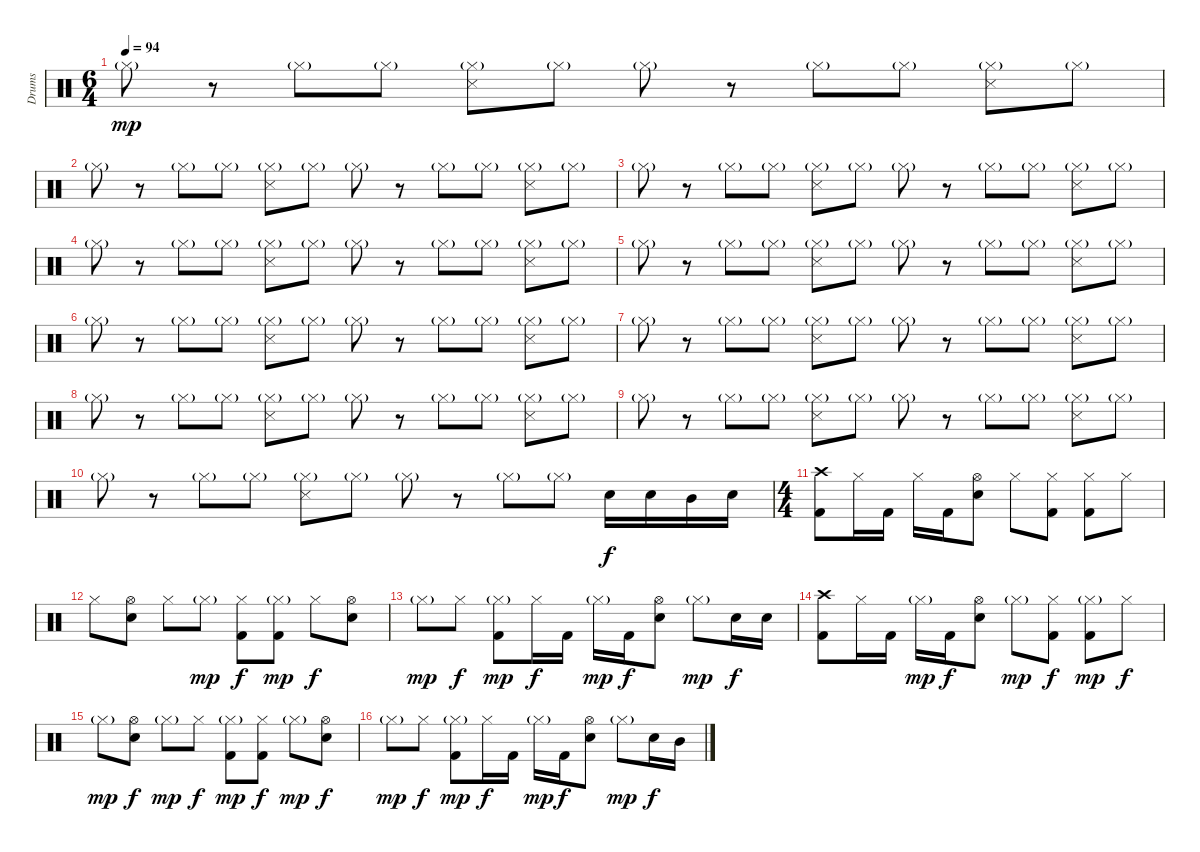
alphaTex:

\track ("Drums" "Drums") {instrument percussion}
\staff {score}
\articulation defaults
\ts (6 4)
\tempo 94
\clef neutral
\ks c "Hi-Hat (closed)"{g}.8{dy mp}
r.8 "Hi-Hat (closed)"{g}.8 "Hi-Hat (closed)"{g}.8 ("Hi-Hat (closed)"{g} "Snare (side stick) 3").8 "Hi-Hat (closed)"{g}.8 "Hi-Hat (closed)"{g}.8 r.8 "Hi-Hat (closed)"{g}.8 "Hi-Hat (closed)"{g}.8 ("Hi-Hat (closed)"{g} "Snare (side stick) 3").8 "Hi-Hat (closed)"{g}.8 |
"Hi-Hat (closed)"{g}.8 r.8 "Hi-Hat (closed)"{g}.8 "Hi-Hat (closed)"{g}.8 ("Hi-Hat (closed)"{g} "Snare (side stick) 3").8 "Hi-Hat (closed)"{g}.8 "Hi-Hat (closed)"{g}.8 r.8 "Hi-Hat (closed)"{g}.8 "Hi-Hat (closed)"{g}.8 ("Hi-Hat (closed)"{g} "Snare (side stick) 3").8 "Hi-Hat (closed)"{g}.8 |
"Hi-Hat (closed)"{g}.8 r.8 "Hi-Hat (closed)"{g}.8 "Hi-Hat (closed)"{g}.8 ("Hi-Hat (closed)"{g} "Snare (side stick) 3").8 "Hi-Hat (closed)"{g}.8 "Hi-Hat (closed)"{g}.8 r.8 "Hi-Hat (closed)"{g}.8 "Hi-Hat (closed)"{g}.8 ("Hi-Hat (closed)"{g} "Snare (side stick) 3").8 "Hi-Hat (closed)"{g}.8 |
"Hi-Hat (closed)"{g}.8 r.8 "Hi-Hat (closed)"{g}.8 "Hi-Hat (closed)"{g}.8 ("Hi-Hat (closed)"{g} "Snare (side stick) 3").8 "Hi-Hat (closed)"{g}.8 "Hi-Hat (closed)"{g}.8 r.8 "Hi-Hat (closed)"{g}.8 "Hi-Hat (closed)"{g}.8 ("Hi-Hat (closed)"{g} "Snare (side stick) 3").8 "Hi-Hat (closed)"{g}.8 |
"Hi-Hat (closed)"{g}.8 r.8 "Hi-Hat (closed)"{g}.8 "Hi-Hat (closed)"{g}.8 ("Hi-Hat (closed)"{g} "Snare (side stick) 3").8 "Hi-Hat (closed)"{g}.8 "Hi-Hat (closed)"{g}.8 r.8 "Hi-Hat (closed)"{g}.8 "Hi-Hat (closed)"{g}.8 ("Hi-Hat (closed)"{g} "Snare (side stick) 3").8 "Hi-Hat (closed)"{g}.8 |
"Hi-Hat (closed)"{g}.8 r.8 "Hi-Hat (closed)"{g}.8 "Hi-Hat (closed)"{g}.8 ("Hi-Hat (closed)"{g} "Snare (side stick) 3").8 "Hi-Hat (closed)"{g}.8 "Hi-Hat (closed)"{g}.8 r.8 "Hi-Hat (closed)"{g}.8 "Hi-Hat (closed)"{g}.8 ("Hi-Hat (closed)"{g} "Snare (side stick) 3").8 "Hi-Hat (closed)"{g}.8 |
"Hi-Hat (closed)"{g}.8 r.8 "Hi-Hat (closed)"{g}.8 "Hi-Hat (closed)"{g}.8 ("Hi-Hat (closed)"{g} "Snare (side stick) 3").8 "Hi-Hat (closed)"{g}.8 "Hi-Hat (closed)"{g}.8 r.8 "Hi-Hat (closed)"{g}.8 "Hi-Hat (closed)"{g}.8 ("Hi-Hat (closed)"{g} "Snare (side stick) 3").8 "Hi-Hat (closed)"{g}.8 |
"Hi-Hat (closed)"{g}.8 r.8 "Hi-Hat (closed)"{g}.8 "Hi-Hat (closed)"{g}.8 ("Hi-Hat (closed)"{g} "Snare (side stick) 3").8 "Hi-Hat (closed)"{g}.8 "Hi-Hat (closed)"{g}.8 r.8 "Hi-Hat (closed)"{g}.8 "Hi-Hat (closed)"{g}.8 ("Hi-Hat (closed)"{g} "Snare (side stick) 3").8 "Hi-Hat (closed)"{g}.8 |
"Hi-Hat (closed)"{g}.8 r.8 "Hi-Hat (closed)"{g}.8 "Hi-Hat (closed)"{g}.8 ("Hi-Hat (closed)"{g} "Snare (side stick) 3").8 "Hi-Hat (closed)"{g}.8 "Hi-Hat (closed)"{g}.8 r.8 "Hi-Hat (closed)"{g}.8 "Hi-Hat (closed)"{g}.8 ("Hi-Hat (closed)"{g} "Snare (side stick) 3").8 "Hi-Hat (closed)"{g}.8 |
"Hi-Hat (closed)"{g}.8 r.8 "Hi-Hat (closed)"{g}.8 "Hi-Hat (closed)"{g}.8 ("Hi-Hat (closed)"{g} "Snare (side stick) 3").8 "Hi-Hat (closed)"{g}.8 "Hi-Hat (closed)"{g}.8 r.8 "Hi-Hat (closed)"{g}.8 "Hi-Hat (closed)"{g}.8 "Electric Snare (hit)".16{dy f} "Electric Snare (hit)".16 "Mid Tom (hit)".16 "Electric Snare (hit)".16 |
\ts (4 4)
("Crash high (hit)" "Kick (hit) 2").8 "Hi-Hat (closed)".16 "Kick (hit) 2".16 "Hi-Hat (closed)".16 "Kick (hit) 2".16 ("Hi-Hat (open)" "Electric Snare (hit)").8 "Hi-Hat (closed)".8 ("Hi-Hat (closed)" "Kick (hit) 2").8 ("Hi-Hat (closed)" "Kick (hit) 2").8 "Hi-Hat (closed)".8 |
"Hi-Hat (closed)".8 ("Hi-Hat (open)" "Electric Snare (hit)").8 "Hi-Hat (closed)".8 "Hi-Hat (closed)"{g}.8{dy mp} ("Hi-Hat (closed)" "Kick (hit) 2").8{dy f} ("Hi-Hat (closed)"{g} "Kick (hit) 2").8{dy mp} "Hi-Hat (closed)".8{dy f} ("Hi-Hat (open)" "Electric Snare (hit)").8 |
"Hi-Hat (closed)"{g}.8{dy mp} "Hi-Hat (closed)".8{dy f} ("Hi-Hat (closed)"{g} "Kick (hit) 2").8{dy mp} "Hi-Hat (closed)".16{dy f} "Kick (hit) 2".16 "Hi-Hat (closed)"{g}.16{dy mp} "Kick (hit) 2".16{dy f} ("Hi-Hat (open)" "Electric Snare (hit)").8 "Hi-Hat (closed)"{g}.8{dy mp} "Electric Snare (hit)".16{dy f} "Electric Snare (hit)".16 |
("Crash high (hit)" "Kick (hit) 2").8 "Hi-Hat (closed)".16 "Kick (hit) 2".16 "Hi-Hat (closed)"{g}.16{dy mp} "Kick (hit) 2".16{dy f} ("Hi-Hat (open)" "Electric Snare (hit)").8 "Hi-Hat (closed)"{g}.8{dy mp} ("Hi-Hat (closed)" "Kick (hit) 2").8{dy f} ("Hi-Hat (closed)"{g} "Kick (hit) 2").8{dy mp} "Hi-Hat (closed)".8{dy f} |
"Hi-Hat (closed)"{g}.8{dy mp} ("Hi-Hat (open)" "Electric Snare (hit)").8{dy f} "Hi-Hat (closed)"{g}.8{dy mp} "Hi-Hat (closed)".8{dy f} ("Hi-Hat (closed)"{g} "Kick (hit) 2").8{dy mp} ("Hi-Hat (closed)" "Kick (hit) 2").8{dy f} "Hi-Hat (closed)"{g}.8{dy mp} ("Hi-Hat (open)" "Electric Snare (hit)").8{dy f} |
"Hi-Hat (closed)"{g}.8{dy mp} "Hi-Hat (closed)".8{dy f} ("Hi-Hat (closed)"{g} "Kick (hit) 2").8{dy mp} "Hi-Hat (closed)".16{dy f} "Kick (hit) 2".16 "Hi-Hat (closed)"{g}.16{dy mp} "Kick (hit) 2".16{dy f} ("Hi-Hat (open)" "Electric Snare (hit)").8 "Hi-Hat (closed)"{g}.8{dy mp} "Electric Snare (hit)".16{dy f} "Mid Tom (hit)".16
